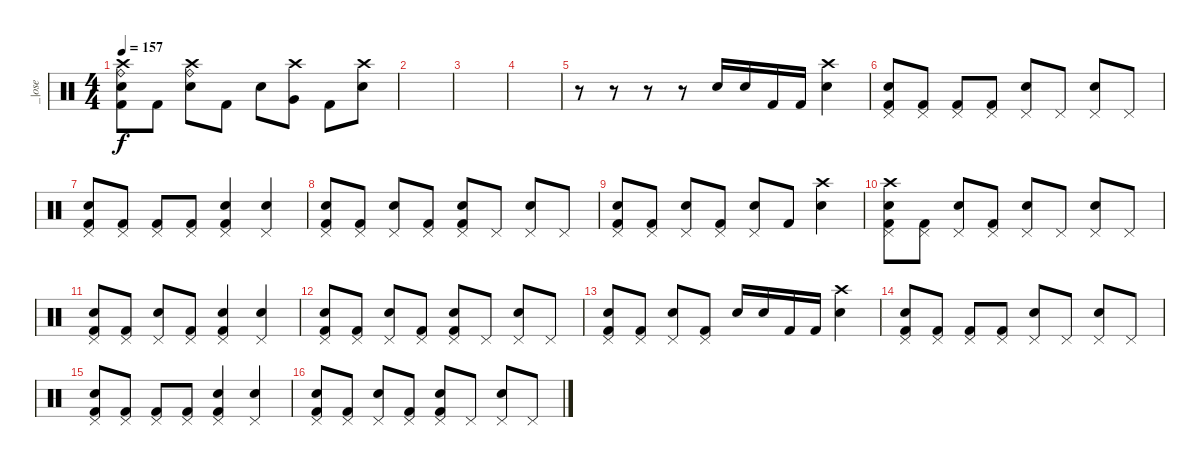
\track ("_|ose" "_|ose") {instrument percussion}
\staff {score}
\articulation defaults
\ts (4 4)
\tempo 157
\clef neutral
\ks c
("Crash high (hit)" "Ride (bell)" "Electric Snare (hit)" "Kick (hit) 2").8{dy f} "Kick (hit) 2".8 ("Crash high (hit)" "Ride (bell)" "Electric Snare (hit)").8 "Kick (hit) 2".8 "Electric Snare (hit)".8 ("Crash high (hit)" "Very Low Tom (hit)").8 "Kick (hit) 2".8 ("Crash high (hit)" "Electric Snare (hit)").8 |
|
|
|
r.8 r.8 r.8 r.8 "Electric Snare (hit)".16 "Electric Snare (hit)".16 "Kick (hit) 2".16 "Kick (hit) 2".16 ("Crash high (hit)" "Electric Snare (hit)").4 |
("Pedal Hi-Hat (hit)" "Electric Snare (hit)" "Kick (hit) 2").8 ("Pedal Hi-Hat (hit)" "Kick (hit) 2").8 ("Pedal Hi-Hat (hit)" "Kick (hit) 2").8 ("Pedal Hi-Hat (hit)" "Kick (hit) 2").8 ("Pedal Hi-Hat (hit)" "Electric Snare (hit)").8 "Pedal Hi-Hat (hit)".8 ("Pedal Hi-Hat (hit)" "Electric Snare (hit)").8 "Pedal Hi-Hat (hit)".8 |
("Pedal Hi-Hat (hit)" "Electric Snare (hit)" "Kick (hit) 2").8 ("Pedal Hi-Hat (hit)" "Kick (hit) 2").8 ("Pedal Hi-Hat (hit)" "Kick (hit) 2").8 ("Pedal Hi-Hat (hit)" "Kick (hit) 2").8 ("Pedal Hi-Hat (hit)" "Electric Snare (hit)" "Kick (hit) 2").4 ("Pedal Hi-Hat (hit)" "Electric Snare (hit)").4 |
("Pedal Hi-Hat (hit)" "Electric Snare (hit)" "Kick (hit) 2").8 ("Pedal Hi-Hat (hit)" "Kick (hit) 2").8 ("Pedal Hi-Hat (hit)" "Electric Snare (hit)").8 ("Pedal Hi-Hat (hit)" "Kick (hit) 2").8 ("Pedal Hi-Hat (hit)" "Electric Snare (hit)" "Kick (hit) 2").8 "Pedal Hi-Hat (hit)".8 ("Pedal Hi-Hat (hit)" "Electric Snare (hit)").8 "Pedal Hi-Hat (hit)".8 |
("Pedal Hi-Hat (hit)" "Electric Snare (hit)" "Kick (hit) 2").8 ("Pedal Hi-Hat (hit)" "Kick (hit) 2").8 ("Pedal Hi-Hat (hit)" "Electric Snare (hit)").8 ("Pedal Hi-Hat (hit)" "Kick (hit) 2").8 ("Pedal Hi-Hat (hit)" "Electric Snare (hit)").8 "Kick (hit) 2".8 ("Crash high (hit)" "Electric Snare (hit)").4 |
("Crash high (hit)" "Pedal Hi-Hat (hit)" "Electric Snare (hit)" "Kick (hit) 2").8 ("Pedal Hi-Hat (hit)" "Kick (hit) 2").8 ("Pedal Hi-Hat (hit)" "Electric Snare (hit)").8 ("Pedal Hi-Hat (hit)" "Kick (hit) 2").8 ("Pedal Hi-Hat (hit)" "Electric Snare (hit)").8 "Pedal Hi-Hat (hit)".8 ("Pedal Hi-Hat (hit)" "Electric Snare (hit)").8 "Pedal Hi-Hat (hit)".8 |
("Pedal Hi-Hat (hit)" "Electric Snare (hit)" "Kick (hit) 2").8 ("Pedal Hi-Hat (hit)" "Kick (hit) 2").8 ("Pedal Hi-Hat (hit)" "Electric Snare (hit)").8 ("Pedal Hi-Hat (hit)" "Kick (hit) 2").8 ("Pedal Hi-Hat (hit)" "Electric Snare (hit)" "Kick (hit) 2").4 ("Pedal Hi-Hat (hit)" "Electric Snare (hit)").4 |
("Pedal Hi-Hat (hit)" "Electric Snare (hit)" "Kick (hit) 2").8 ("Pedal Hi-Hat (hit)" "Kick (hit) 2").8 ("Pedal Hi-Hat (hit)" "Electric Snare (hit)").8 ("Pedal Hi-Hat (hit)" "Kick (hit) 2").8 ("Pedal Hi-Hat (hit)" "Electric Snare (hit)" "Kick (hit) 2").8 "Pedal Hi-Hat (hit)".8 ("Pedal Hi-Hat (hit)" "Electric Snare (hit)").8 "Pedal Hi-Hat (hit)".8 |
("Pedal Hi-Hat (hit)" "Electric Snare (hit)" "Kick (hit) 2").8 ("Pedal Hi-Hat (hit)" "Kick (hit) 2").8 ("Pedal Hi-Hat (hit)" "Electric Snare (hit)").8 ("Pedal Hi-Hat (hit)" "Kick (hit) 2").8 "Electric Snare (hit)".16 "Electric Snare (hit)".16 "Kick (hit) 2".16 "Kick (hit) 2".16 ("Crash high (hit)" "Electric Snare (hit)").4 |
("Pedal Hi-Hat (hit)" "Electric Snare (hit)" "Kick (hit) 2").8 ("Pedal Hi-Hat (hit)" "Kick (hit) 2").8 ("Pedal Hi-Hat (hit)" "Kick (hit) 2").8 ("Pedal Hi-Hat (hit)" "Kick (hit) 2").8 ("Pedal Hi-Hat (hit)" "Electric Snare (hit)").8 "Pedal Hi-Hat (hit)".8 ("Pedal Hi-Hat (hit)" "Electric Snare (hit)").8 "Pedal Hi-Hat (hit)".8 |
("Pedal Hi-Hat (hit)" "Electric Snare (hit)" "Kick (hit) 2").8 ("Pedal Hi-Hat (hit)" "Kick (hit) 2").8 ("Pedal Hi-Hat (hit)" "Kick (hit) 2").8 ("Pedal Hi-Hat (hit)" "Kick (hit) 2").8 ("Pedal Hi-Hat (hit)" "Electric Snare (hit)" "Kick (hit) 2").4 ("Pedal Hi-Hat (hit)" "Electric Snare (hit)").4 |
("Pedal Hi-Hat (hit)" "Electric Snare (hit)" "Kick (hit) 2").8 ("Pedal Hi-Hat (hit)" "Kick (hit) 2").8 ("Pedal Hi-Hat (hit)" "Electric Snare (hit)").8 ("Pedal Hi-Hat (hit)" "Kick (hit) 2").8 ("Pedal Hi-Hat (hit)" "Electric Snare (hit)" "Kick (hit) 2").8 "Pedal Hi-Hat (hit)".8 ("Pedal Hi-Hat (hit)" "Electric Snare (hit)").8 "Pedal Hi-Hat (hit)".8
